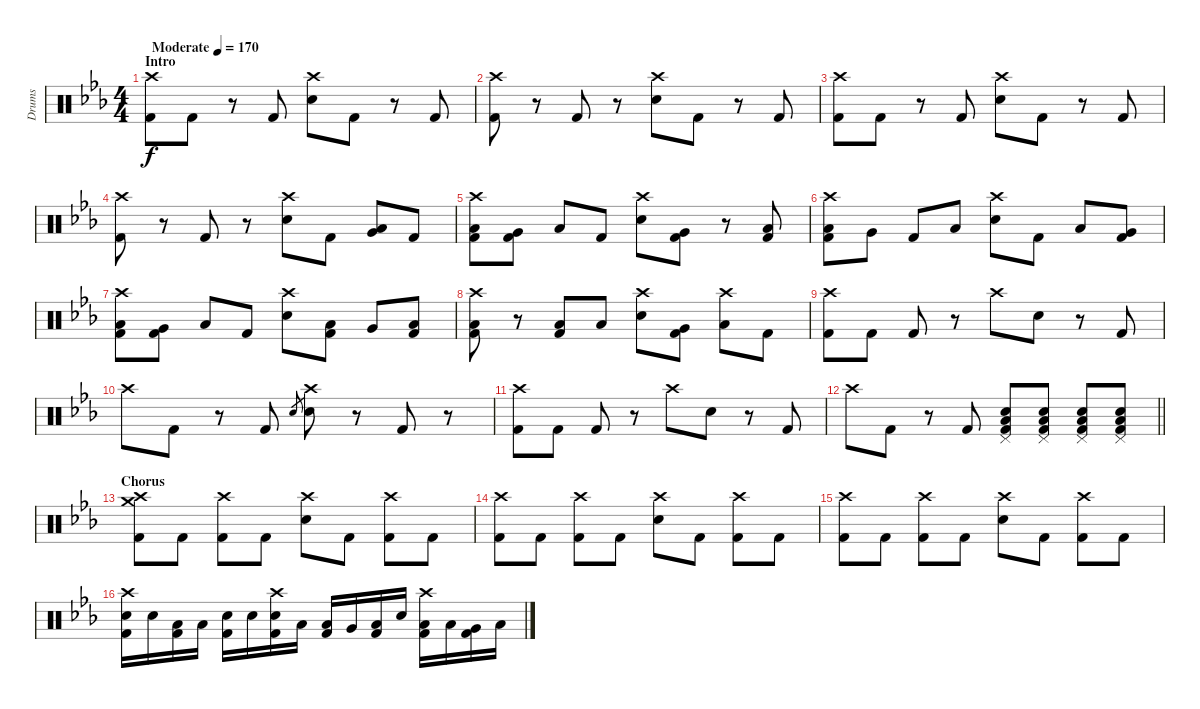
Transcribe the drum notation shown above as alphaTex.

\track ("Drums" "Drums") {instrument percussion}
\staff {score}
\articulation defaults
\ts (4 4)
\section ("" "Intro")
\tempo (170 "Moderate")
\clef neutral
\ks cminor
("Crash high (hit)" "Kick (hit) 2").8{dy f} "Kick (hit) 2".8 r.8 "Kick (hit) 2".8 ("Crash high (hit)" "Electric Snare (hit)").8 "Kick (hit) 2".8 r.8 "Kick (hit) 2".8 |
("Crash high (hit)" "Kick (hit) 2").8 r.8 "Kick (hit) 2".8 r.8 ("Crash high (hit)" "Electric Snare (hit)").8 "Kick (hit) 2".8 r.8 "Kick (hit) 2".8 |
("Crash high (hit)" "Kick (hit) 2").8 "Kick (hit) 2".8 r.8 "Kick (hit) 2".8 ("Crash high (hit)" "Electric Snare (hit)").8 "Kick (hit) 2".8 r.8 "Kick (hit) 2".8 |
("Crash high (hit)" "Kick (hit) 2").8 r.8 "Kick (hit) 2".8 r.8 ("Crash high (hit)" "Electric Snare (hit)").8 "Kick (hit) 2".8 ("Low Tom (hit)" "Very Low Tom (hit)").8 "Kick (hit) 2".8 |
("Crash high (hit)" "Low Tom (hit)" "Kick (hit) 2").8 ("Very Low Tom (hit)" "Kick (hit) 2").8 "Low Floor Tom (hit)".8 "Kick (hit) 2".8 ("Crash high (hit)" "Electric Snare (hit)").8 ("Very Low Tom (hit)" "Kick (hit) 2").8 r.8 ("Low Floor Tom (hit)" "Kick (hit) 2").8 |
("Crash high (hit)" "Low Tom (hit)" "Kick (hit) 2").8 "Very Low Tom (hit)".8 "Kick (hit) 2".8 "Low Floor Tom (hit)".8 ("Crash high (hit)" "Electric Snare (hit)").8 "Kick (hit) 2".8 "Low Tom (hit)".8 ("Very Low Tom (hit)" "Kick (hit) 2").8 |
("Crash high (hit)" "Low Tom (hit)" "Kick (hit) 2").8 ("Very Low Tom (hit)" "Kick (hit) 2").8 "Low Floor Tom (hit)".8 "Kick (hit) 2".8 ("Crash high (hit)" "Electric Snare (hit)").8 ("Low Tom (hit)" "Kick (hit) 2").8 "Very Low Tom (hit)".8 ("Low Floor Tom (hit)" "Kick (hit) 2").8 |
("Crash high (hit)" "Low Floor Tom (hit)" "Kick (hit) 2").8 r.8 ("Low Tom (hit)" "Kick (hit) 2").8 "Low Floor Tom (hit)".8 ("Crash high (hit)" "Electric Snare (hit)").8 ("Very Low Tom (hit)" "Kick (hit) 2").8 ("Crash high (hit)" "Low Tom (hit)").8 "Kick (hit) 2".8 |
("Crash high (hit)" "Kick (hit) 2").8 "Kick (hit) 2".8 "Kick (hit) 2".8 r.8 "Crash high (hit)".8 "Electric Snare (hit)".8 r.8 "Kick (hit) 2".8 |
"Crash high (hit)".8 "Kick (hit) 2".8 r.8 "Kick (hit) 2".8 "Electric Snare (hit)".8{gr} ("Crash high (hit)" "Electric Snare (hit)").8 r.8 "Kick (hit) 2".8 r.8 |
("Crash high (hit)" "Kick (hit) 2").8 "Kick (hit) 2".8 "Kick (hit) 2".8 r.8 "Crash high (hit)".8 "Electric Snare (hit)".8 r.8 "Kick (hit) 2".8 |
\barLineRight lightlight "Crash high (hit)".8 "Kick (hit) 2".8
r.8 "Kick (hit) 2".8 ("Pedal Hi-Hat (hit)" "Low Floor Tom (hit)" "Electric Snare (hit)" "Kick (hit) 2").8 ("Pedal Hi-Hat (hit)" "Low Floor Tom (hit)" "Electric Snare (hit)" "Kick (hit) 2").8 ("Pedal Hi-Hat (hit)" "Low Floor Tom (hit)" "Electric Snare (hit)" "Kick (hit) 2").8 ("Pedal Hi-Hat (hit)" "Low Floor Tom (hit)" "Electric Snare (hit)" "Kick (hit) 2").8 |
\section ("" "Chorus")
("Crash high (hit)" "Crash medium (hit)" "Kick (hit) 2").8 "Kick (hit) 2".8 ("Crash high (hit)" "Kick (hit) 2").8 "Kick (hit) 2".8 ("Crash high (hit)" "Electric Snare (hit)").8 "Kick (hit) 2".8 ("Crash high (hit)" "Kick (hit) 2").8 "Kick (hit) 2".8 |
("Crash high (hit)" "Kick (hit) 2").8 "Kick (hit) 2".8 ("Crash high (hit)" "Kick (hit) 2").8 "Kick (hit) 2".8 ("Crash high (hit)" "Electric Snare (hit)").8 "Kick (hit) 2".8 ("Crash high (hit)" "Kick (hit) 2").8 "Kick (hit) 2".8 |
("Crash high (hit)" "Kick (hit) 2").8 "Kick (hit) 2".8 ("Crash high (hit)" "Kick (hit) 2").8 "Kick (hit) 2".8 ("Crash high (hit)" "Electric Snare (hit)").8 "Kick (hit) 2".8 ("Crash high (hit)" "Kick (hit) 2").8 "Kick (hit) 2".8 |
("Crash high (hit)" "Electric Snare (hit)" "Kick (hit) 2").16 "Electric Snare (hit)".16 ("Low Tom (hit)" "Kick (hit) 2").16 "Low Tom (hit)".16 ("Electric Snare (hit)" "Kick (hit) 2").16 "Electric Snare (hit)".16 ("Crash high (hit)" "Electric Snare (hit)" "Kick (hit) 2").16 "Low Tom (hit)".16 ("Low Tom (hit)" "Kick (hit) 2").16 "Very Low Tom (hit)".16 ("Low Floor Tom (hit)" "Kick (hit) 2").16 "Electric Snare (hit)".16 ("Crash high (hit)" "Low Tom (hit)" "Kick (hit) 2").16 "Low Tom (hit)".16 ("Very Low Tom (hit)" "Kick (hit) 2").16 "Low Floor Tom (hit)".16
